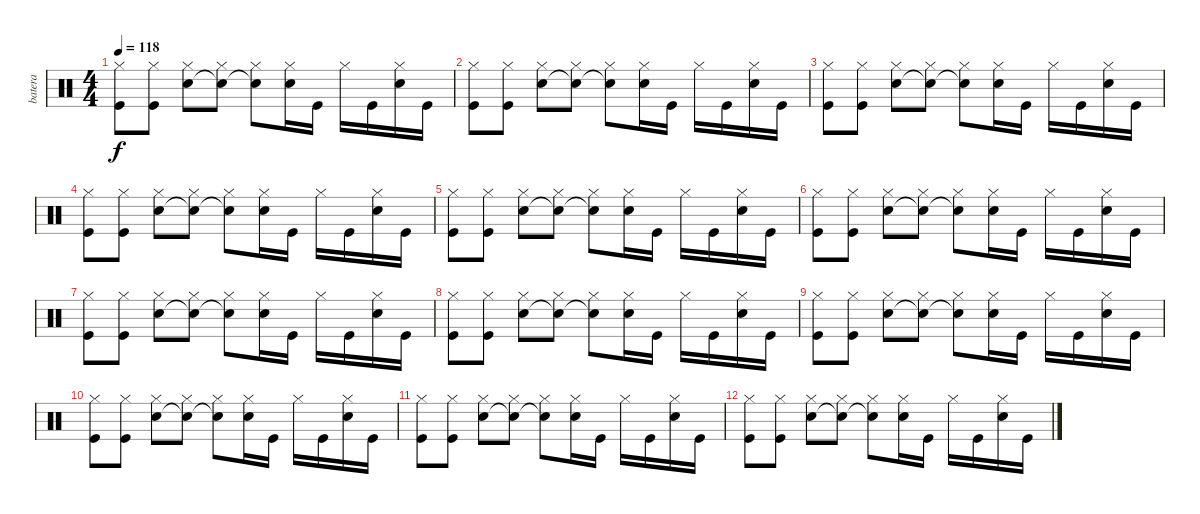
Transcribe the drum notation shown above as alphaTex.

\track ("batera" "batera") {instrument percussion}
\staff {score}
\articulation defaults
\ts (4 4)
\tempo 118
\clef neutral
\ks c
("Hi-Hat (closed)" "Kick (hit)").8{dy f} ("Hi-Hat (closed)" "Kick (hit)").8 ("Hi-Hat (closed)" "Snare (hit) 2").8 ("Hi-Hat (closed)" "Snare (hit)"{t}).8 ("Hi-Hat (closed)" "Snare (hit)"{t}).8 ("Hi-Hat (closed)" "Snare (hit) 2").16 "Kick (hit)".16 "Hi-Hat (closed)".16 "Kick (hit)".16 ("Hi-Hat (closed)" "Snare (hit) 2").16 "Kick (hit)".16 |
("Hi-Hat (closed)" "Kick (hit)").8 ("Hi-Hat (closed)" "Kick (hit)").8 ("Hi-Hat (closed)" "Snare (hit) 2").8 ("Hi-Hat (closed)" "Snare (hit)"{t}).8 ("Hi-Hat (closed)" "Snare (hit)"{t}).8 ("Hi-Hat (closed)" "Snare (hit) 2").16 "Kick (hit)".16 "Hi-Hat (closed)".16 "Kick (hit)".16 ("Hi-Hat (closed)" "Snare (hit) 2").16 "Kick (hit)".16 |
("Hi-Hat (closed)" "Kick (hit)").8 ("Hi-Hat (closed)" "Kick (hit)").8 ("Hi-Hat (closed)" "Snare (hit) 2").8 ("Hi-Hat (closed)" "Snare (hit)"{t}).8 ("Hi-Hat (closed)" "Snare (hit)"{t}).8 ("Hi-Hat (closed)" "Snare (hit) 2").16 "Kick (hit)".16 "Hi-Hat (closed)".16 "Kick (hit)".16 ("Hi-Hat (closed)" "Snare (hit) 2").16 "Kick (hit)".16 |
("Hi-Hat (closed)" "Kick (hit)").8 ("Hi-Hat (closed)" "Kick (hit)").8 ("Hi-Hat (closed)" "Snare (hit) 2").8 ("Hi-Hat (closed)" "Snare (hit)"{t}).8 ("Hi-Hat (closed)" "Snare (hit)"{t}).8 ("Hi-Hat (closed)" "Snare (hit) 2").16 "Kick (hit)".16 "Hi-Hat (closed)".16 "Kick (hit)".16 ("Hi-Hat (closed)" "Snare (hit) 2").16 "Kick (hit)".16 |
("Hi-Hat (closed)" "Kick (hit)").8 ("Hi-Hat (closed)" "Kick (hit)").8 ("Hi-Hat (closed)" "Snare (hit) 2").8 ("Hi-Hat (closed)" "Snare (hit)"{t}).8 ("Hi-Hat (closed)" "Snare (hit)"{t}).8 ("Hi-Hat (closed)" "Snare (hit) 2").16 "Kick (hit)".16 "Hi-Hat (closed)".16 "Kick (hit)".16 ("Hi-Hat (closed)" "Snare (hit) 2").16 "Kick (hit)".16 |
("Hi-Hat (closed)" "Kick (hit)").8 ("Hi-Hat (closed)" "Kick (hit)").8 ("Hi-Hat (closed)" "Snare (hit) 2").8 ("Hi-Hat (closed)" "Snare (hit)"{t}).8 ("Hi-Hat (closed)" "Snare (hit)"{t}).8 ("Hi-Hat (closed)" "Snare (hit) 2").16 "Kick (hit)".16 "Hi-Hat (closed)".16 "Kick (hit)".16 ("Hi-Hat (closed)" "Snare (hit) 2").16 "Kick (hit)".16 |
("Hi-Hat (closed)" "Kick (hit)").8 ("Hi-Hat (closed)" "Kick (hit)").8 ("Hi-Hat (closed)" "Snare (hit) 2").8 ("Hi-Hat (closed)" "Snare (hit)"{t}).8 ("Hi-Hat (closed)" "Snare (hit)"{t}).8 ("Hi-Hat (closed)" "Snare (hit) 2").16 "Kick (hit)".16 "Hi-Hat (closed)".16 "Kick (hit)".16 ("Hi-Hat (closed)" "Snare (hit) 2").16 "Kick (hit)".16 |
("Hi-Hat (closed)" "Kick (hit)").8 ("Hi-Hat (closed)" "Kick (hit)").8 ("Hi-Hat (closed)" "Snare (hit) 2").8 ("Hi-Hat (closed)" "Snare (hit)"{t}).8 ("Hi-Hat (closed)" "Snare (hit)"{t}).8 ("Hi-Hat (closed)" "Snare (hit) 2").16 "Kick (hit)".16 "Hi-Hat (closed)".16 "Kick (hit)".16 ("Hi-Hat (closed)" "Snare (hit) 2").16 "Kick (hit)".16 |
("Hi-Hat (closed)" "Kick (hit)").8 ("Hi-Hat (closed)" "Kick (hit)").8 ("Hi-Hat (closed)" "Snare (hit) 2").8 ("Hi-Hat (closed)" "Snare (hit)"{t}).8 ("Hi-Hat (closed)" "Snare (hit)"{t}).8 ("Hi-Hat (closed)" "Snare (hit) 2").16 "Kick (hit)".16 "Hi-Hat (closed)".16 "Kick (hit)".16 ("Hi-Hat (closed)" "Snare (hit) 2").16 "Kick (hit)".16 |
("Hi-Hat (closed)" "Kick (hit)").8 ("Hi-Hat (closed)" "Kick (hit)").8 ("Hi-Hat (closed)" "Snare (hit) 2").8 ("Hi-Hat (closed)" "Snare (hit)"{t}).8 ("Hi-Hat (closed)" "Snare (hit)"{t}).8 ("Hi-Hat (closed)" "Snare (hit) 2").16 "Kick (hit)".16 "Hi-Hat (closed)".16 "Kick (hit)".16 ("Hi-Hat (closed)" "Snare (hit) 2").16 "Kick (hit)".16 |
("Hi-Hat (closed)" "Kick (hit)").8 ("Hi-Hat (closed)" "Kick (hit)").8 ("Hi-Hat (closed)" "Snare (hit) 2").8 ("Hi-Hat (closed)" "Snare (hit)"{t}).8 ("Hi-Hat (closed)" "Snare (hit)"{t}).8 ("Hi-Hat (closed)" "Snare (hit) 2").16 "Kick (hit)".16 "Hi-Hat (closed)".16 "Kick (hit)".16 ("Hi-Hat (closed)" "Snare (hit) 2").16 "Kick (hit)".16 |
("Hi-Hat (closed)" "Kick (hit)").8 ("Hi-Hat (closed)" "Kick (hit)").8 ("Hi-Hat (closed)" "Snare (hit) 2").8 ("Hi-Hat (closed)" "Snare (hit)"{t}).8 ("Hi-Hat (closed)" "Snare (hit)"{t}).8 ("Hi-Hat (closed)" "Snare (hit) 2").16 "Kick (hit)".16 "Hi-Hat (closed)".16 "Kick (hit)".16 ("Hi-Hat (closed)" "Snare (hit) 2").16 "Kick (hit)".16
